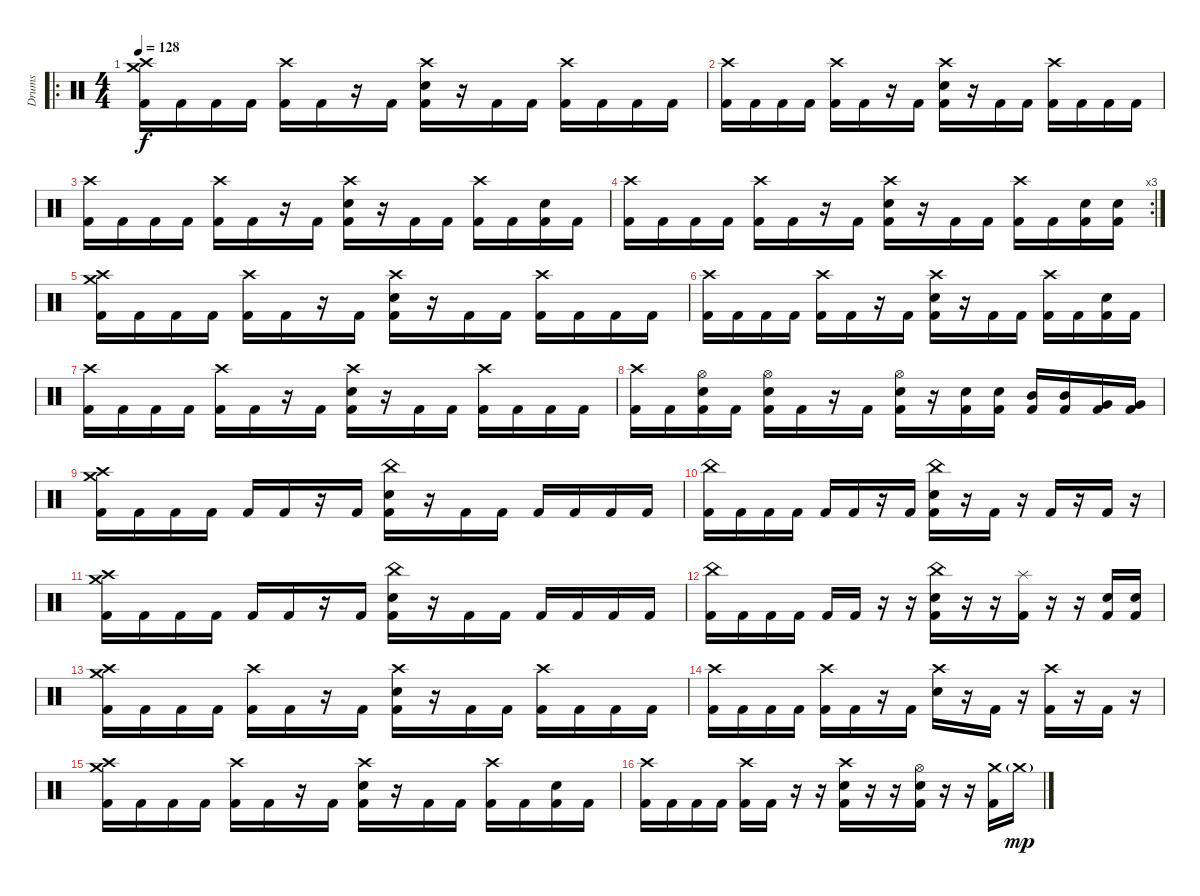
\track ("Drums" "Drums") {solo instrument percussion}
\staff {score}
\articulation defaults
\ro
\ts (4 4)
\tempo 128
\clef neutral
\ks c
("Crash high (hit)" "Crash medium (hit)" "Kick (hit) 2").16{dy f} "Kick (hit) 2".16 "Kick (hit) 2".16 "Kick (hit) 2".16 ("Crash high (hit)" "Kick (hit) 2").16 "Kick (hit) 2".16 r.16 "Kick (hit) 2".16 ("Crash high (hit)" "Electric Snare (hit)" "Kick (hit) 2").16 r.16 "Kick (hit) 2".16 "Kick (hit) 2".16 ("Crash high (hit)" "Kick (hit) 2").16 "Kick (hit) 2".16 "Kick (hit) 2".16 "Kick (hit) 2".16 |
("Crash high (hit)" "Kick (hit) 2").16 "Kick (hit) 2".16 "Kick (hit) 2".16 "Kick (hit) 2".16 ("Crash high (hit)" "Kick (hit) 2").16 "Kick (hit) 2".16 r.16 "Kick (hit) 2".16 ("Crash high (hit)" "Electric Snare (hit)" "Kick (hit) 2").16 r.16 "Kick (hit) 2".16 "Kick (hit) 2".16 ("Crash high (hit)" "Kick (hit) 2").16 "Kick (hit) 2".16 "Kick (hit) 2".16 "Kick (hit) 2".16 |
("Crash high (hit)" "Kick (hit) 2").16 "Kick (hit) 2".16 "Kick (hit) 2".16 "Kick (hit) 2".16 ("Crash high (hit)" "Kick (hit) 2").16 "Kick (hit) 2".16 r.16 "Kick (hit) 2".16 ("Crash high (hit)" "Electric Snare (hit)" "Kick (hit) 2").16 r.16 "Kick (hit) 2".16 "Kick (hit) 2".16 ("Crash high (hit)" "Kick (hit) 2").16 "Kick (hit) 2".16 ("Electric Snare (hit)" "Kick (hit) 2").16 "Kick (hit) 2".16 |
\rc 3
("Crash high (hit)" "Kick (hit) 2").16 "Kick (hit) 2".16 "Kick (hit) 2".16 "Kick (hit) 2".16 ("Crash high (hit)" "Kick (hit) 2").16 "Kick (hit) 2".16 r.16 "Kick (hit) 2".16 ("Crash high (hit)" "Electric Snare (hit)" "Kick (hit) 2").16 r.16 "Kick (hit) 2".16 "Kick (hit) 2".16 ("Crash high (hit)" "Kick (hit) 2").16 "Kick (hit) 2".16 ("Electric Snare (hit)" "Kick (hit) 2").16 ("Electric Snare (hit)" "Kick (hit) 2").16 |
("Crash high (hit)" "Crash medium (hit)" "Kick (hit) 2").16 "Kick (hit) 2".16 "Kick (hit) 2".16 "Kick (hit) 2".16 ("Crash high (hit)" "Kick (hit) 2").16 "Kick (hit) 2".16 r.16 "Kick (hit) 2".16 ("Crash high (hit)" "Electric Snare (hit)" "Kick (hit) 2").16 r.16 "Kick (hit) 2".16 "Kick (hit) 2".16 ("Crash high (hit)" "Kick (hit) 2").16 "Kick (hit) 2".16 "Kick (hit) 2".16 "Kick (hit) 2".16 |
("Crash high (hit)" "Kick (hit) 2").16 "Kick (hit) 2".16 "Kick (hit) 2".16 "Kick (hit) 2".16 ("Crash high (hit)" "Kick (hit) 2").16 "Kick (hit) 2".16 r.16 "Kick (hit) 2".16 ("Crash high (hit)" "Electric Snare (hit)" "Kick (hit) 2").16 r.16 "Kick (hit) 2".16 "Kick (hit) 2".16 ("Crash high (hit)" "Kick (hit) 2").16 "Kick (hit) 2".16 ("Electric Snare (hit)" "Kick (hit) 2").16 "Kick (hit) 2".16 |
("Crash high (hit)" "Kick (hit) 2").16 "Kick (hit) 2".16 "Kick (hit) 2".16 "Kick (hit) 2".16 ("Crash high (hit)" "Kick (hit) 2").16 "Kick (hit) 2".16 r.16 "Kick (hit) 2".16 ("Crash high (hit)" "Electric Snare (hit)" "Kick (hit) 2").16 r.16 "Kick (hit) 2".16 "Kick (hit) 2".16 ("Crash high (hit)" "Kick (hit) 2").16 "Kick (hit) 2".16 "Kick (hit) 2".16 "Kick (hit) 2".16 |
("Crash high (hit)" "Kick (hit) 2").16 "Kick (hit) 2".16 ("Hi-Hat (open)" "Electric Snare (hit)" "Kick (hit) 2").16 "Kick (hit) 2".16 ("Hi-Hat (open)" "Electric Snare (hit)" "Kick (hit) 2").16 "Kick (hit) 2".16 r.16 "Kick (hit) 2".16 ("Hi-Hat (open)" "Electric Snare (hit)" "Kick (hit) 2").16 r.16 ("Electric Snare (hit)" "Kick (hit) 2").16 ("Electric Snare (hit)" "Kick (hit) 2").16 ("Mid Tom (hit)" "Kick (hit) 2").16 ("Mid Tom (hit)" "Kick (hit) 2").16 ("Very Low Tom (hit)" "Kick (hit) 2").16 ("Very Low Tom (hit)" "Kick (hit) 2").16 |
("Crash high (hit)" "Crash medium (hit)" "Kick (hit) 2").16 "Kick (hit) 2".16 "Kick (hit) 2".16 "Kick (hit) 2".16 "Kick (hit) 2".16 "Kick (hit) 2".16 r.16 "Kick (hit) 2".16 ("China (hit)" "Electric Snare (hit)" "Kick (hit) 2").16 r.16 "Kick (hit) 2".16 "Kick (hit) 2".16 "Kick (hit) 2".16 "Kick (hit) 2".16 "Kick (hit) 2".16 "Kick (hit) 2".16 |
("China (hit)" "Kick (hit) 2").16 "Kick (hit) 2".16 "Kick (hit) 2".16 "Kick (hit) 2".16 "Kick (hit) 2".16 "Kick (hit) 2".16 r.16 "Kick (hit) 2".16 ("China (hit)" "Electric Snare (hit)" "Kick (hit) 2").16 r.16 "Kick (hit) 2".16 r.16 "Kick (hit) 2".16 r.16 "Kick (hit) 2".16 r.16 |
("Crash high (hit)" "Crash medium (hit)" "Kick (hit) 2").16 "Kick (hit) 2".16 "Kick (hit) 2".16 "Kick (hit) 2".16 "Kick (hit) 2".16 "Kick (hit) 2".16 r.16 "Kick (hit) 2".16 ("China (hit)" "Electric Snare (hit)" "Kick (hit) 2").16 r.16 "Kick (hit) 2".16 "Kick (hit) 2".16 "Kick (hit) 2".16 "Kick (hit) 2".16 "Kick (hit) 2".16 "Kick (hit) 2".16 |
("China (hit)" "Kick (hit) 2").16 "Kick (hit) 2".16 "Kick (hit) 2".16 "Kick (hit) 2".16 "Kick (hit) 2".16 "Kick (hit) 2".16 r.16 r.16 ("China (hit)" "Electric Snare (hit)" "Kick (hit) 2").16 r.16 r.16 ("Splash (hit)" "Kick (hit) 2").16 r.16 r.16 ("Electric Snare (hit)" "Kick (hit) 2").16 ("Electric Snare (hit)" "Kick (hit) 2").16 |
("Crash high (hit)" "Crash medium (hit)" "Kick (hit) 2").16 "Kick (hit) 2".16 "Kick (hit) 2".16 "Kick (hit) 2".16 ("Crash high (hit)" "Kick (hit) 2").16 "Kick (hit) 2".16 r.16 "Kick (hit) 2".16 ("Crash high (hit)" "Electric Snare (hit)" "Kick (hit) 2").16 r.16 "Kick (hit) 2".16 "Kick (hit) 2".16 ("Crash high (hit)" "Kick (hit) 2").16 "Kick (hit) 2".16 "Kick (hit) 2".16 "Kick (hit) 2".16 |
("Crash high (hit)" "Kick (hit) 2").16 "Kick (hit) 2".16 "Kick (hit) 2".16 "Kick (hit) 2".16 ("Crash high (hit)" "Kick (hit) 2").16 "Kick (hit) 2".16 r.16 "Kick (hit) 2".16 ("Crash high (hit)" "Electric Snare (hit)").16 r.16 "Kick (hit) 2".16 r.16 ("Crash high (hit)" "Kick (hit) 2").16 r.16 "Kick (hit) 2".16 r.16 |
("Crash high (hit)" "Crash medium (hit)" "Kick (hit) 2").16 "Kick (hit) 2".16 "Kick (hit) 2".16 "Kick (hit) 2".16 ("Crash high (hit)" "Kick (hit) 2").16 "Kick (hit) 2".16 r.16 "Kick (hit) 2".16 ("Crash high (hit)" "Electric Snare (hit)" "Kick (hit) 2").16 r.16 "Kick (hit) 2".16 "Kick (hit) 2".16 ("Crash high (hit)" "Kick (hit) 2").16 "Kick (hit) 2".16 ("Electric Snare (hit)" "Kick (hit) 2").16 "Kick (hit) 2".16 |
("Crash high (hit)" "Kick (hit) 2").16 "Kick (hit) 2".16 "Kick (hit) 2".16 "Kick (hit) 2".16 ("Crash high (hit)" "Kick (hit) 2").16 "Kick (hit) 2".16 r.16 r.16 ("Crash high (hit)" "Electric Snare (hit)" "Kick (hit) 2").16 r.16 r.16 ("Hi-Hat (open)" "Electric Snare (hit)" "Kick (hit) 2").16 r.16 r.16 ("Crash medium (hit)" "Kick (hit) 2").16 "Crash medium (hit)"{g}.16{dy mp}
